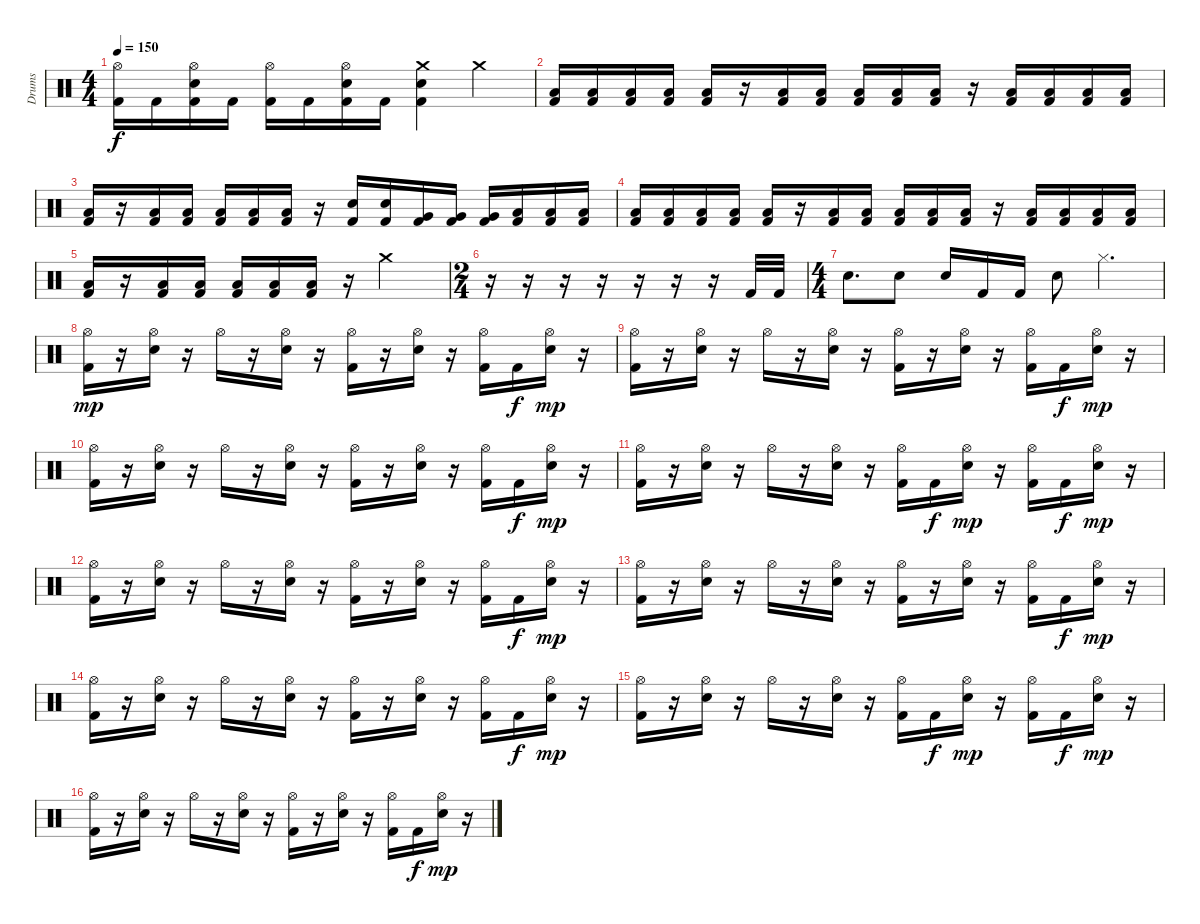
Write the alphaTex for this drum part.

\track ("Drums" "Drums") {instrument percussion}
\staff {score}
\articulation defaults
\ts (4 4)
\tempo 150
\clef neutral
\ks c
("Kick (hit) 2" "Hi-Hat (open)").16{dy f} "Kick (hit) 2".16 ("Kick (hit) 2" "Snare (hit) 2" "Hi-Hat (open)").16 "Kick (hit) 2".16 ("Kick (hit) 2" "Hi-Hat (open)").16 "Kick (hit) 2".16 ("Kick (hit) 2" "Snare (hit) 2" "Hi-Hat (open)").16 "Kick (hit) 2".16 ("Kick (hit) 2" "Snare (hit) 2" "Crash medium (hit)").4 "Crash medium (hit)".4 |
("Low Floor Tom (hit)" "Kick (hit) 2").16 ("Low Floor Tom (hit)" "Kick (hit) 2").16 ("Low Floor Tom (hit)" "Kick (hit) 2").16 ("Low Floor Tom (hit)" "Kick (hit) 2").16 ("Low Floor Tom (hit)" "Kick (hit) 2").16 r.16 ("Low Floor Tom (hit)" "Kick (hit) 2").16 ("Low Floor Tom (hit)" "Kick (hit) 2").16 ("Low Floor Tom (hit)" "Kick (hit) 2").16 ("Low Floor Tom (hit)" "Kick (hit) 2").16 ("Low Floor Tom (hit)" "Kick (hit) 2").16 r.16 ("Low Floor Tom (hit)" "Kick (hit) 2").16 ("Low Floor Tom (hit)" "Kick (hit) 2").16 ("Low Floor Tom (hit)" "Kick (hit) 2").16 ("Low Floor Tom (hit)" "Kick (hit) 2").16 |
("Low Floor Tom (hit)" "Kick (hit) 2").16 r.16 ("Low Floor Tom (hit)" "Kick (hit) 2").16 ("Low Floor Tom (hit)" "Kick (hit) 2").16 ("Low Floor Tom (hit)" "Kick (hit) 2").16 ("Low Floor Tom (hit)" "Kick (hit) 2").16 ("Low Floor Tom (hit)" "Kick (hit) 2").16 r.16 ("Snare (hit) 2" "Kick (hit) 2").16 ("Snare (hit) 2" "Kick (hit) 2").16 ("Very Low Tom (hit)" "Kick (hit) 2").16 ("Very Low Tom (hit)" "Kick (hit) 2").16 ("Very Low Tom (hit)" "Kick (hit) 2").16 ("Low Floor Tom (hit)" "Kick (hit) 2").16 ("Low Floor Tom (hit)" "Kick (hit) 2").16 ("Low Floor Tom (hit)" "Kick (hit) 2").16 |
("Low Floor Tom (hit)" "Kick (hit) 2").16 ("Low Floor Tom (hit)" "Kick (hit) 2").16 ("Low Floor Tom (hit)" "Kick (hit) 2").16 ("Low Floor Tom (hit)" "Kick (hit) 2").16 ("Low Floor Tom (hit)" "Kick (hit) 2").16 r.16 ("Low Floor Tom (hit)" "Kick (hit) 2").16 ("Low Floor Tom (hit)" "Kick (hit) 2").16 ("Low Floor Tom (hit)" "Kick (hit) 2").16 ("Low Floor Tom (hit)" "Kick (hit) 2").16 ("Low Floor Tom (hit)" "Kick (hit) 2").16 r.16 ("Low Floor Tom (hit)" "Kick (hit) 2").16 ("Low Floor Tom (hit)" "Kick (hit) 2").16 ("Low Floor Tom (hit)" "Kick (hit) 2").16 ("Low Floor Tom (hit)" "Kick (hit) 2").16 |
("Low Floor Tom (hit)" "Kick (hit) 2").16 r.16 ("Low Floor Tom (hit)" "Kick (hit) 2").16 ("Low Floor Tom (hit)" "Kick (hit) 2").16 ("Low Floor Tom (hit)" "Kick (hit) 2").16 ("Low Floor Tom (hit)" "Kick (hit) 2").16 ("Low Floor Tom (hit)" "Kick (hit) 2").16 r.16 "Crash medium (hit)".2 |
\ts (2 4)
r.16 r.16 r.16 r.16 r.16 r.16 r.16 "Kick (hit) 2".32 "Kick (hit) 2".32 |
\ts (4 4)
"Electric Snare (hit)".8{d} "Electric Snare (hit)".8 "Electric Snare (hit)".16 "Kick (hit) 2".16 "Kick (hit) 2".16 "Electric Snare (hit)".8 "Hi-Hat (closed)".4{d} |
("Kick (hit) 2" "Hi-Hat (open)").16{dy mp} r.16 ("Electric Snare (hit)" "Hi-Hat (open)").16 r.16 "Hi-Hat (open)".16 r.16 ("Electric Snare (hit)" "Hi-Hat (open)").16 r.16 ("Kick (hit) 2" "Hi-Hat (open)").16 r.16 ("Electric Snare (hit)" "Hi-Hat (open)").16 r.16 ("Kick (hit) 2" "Hi-Hat (open)").16 "Kick (hit) 2".16{dy f} ("Electric Snare (hit)" "Hi-Hat (open)").16{dy mp} r.16 |
("Kick (hit) 2" "Hi-Hat (open)").16 r.16 ("Electric Snare (hit)" "Hi-Hat (open)").16 r.16 "Hi-Hat (open)".16 r.16 ("Electric Snare (hit)" "Hi-Hat (open)").16 r.16 ("Kick (hit) 2" "Hi-Hat (open)").16 r.16 ("Electric Snare (hit)" "Hi-Hat (open)").16 r.16 ("Kick (hit) 2" "Hi-Hat (open)").16 "Kick (hit) 2".16{dy f} ("Electric Snare (hit)" "Hi-Hat (open)").16{dy mp} r.16 |
("Kick (hit) 2" "Hi-Hat (open)").16 r.16 ("Electric Snare (hit)" "Hi-Hat (open)").16 r.16 "Hi-Hat (open)".16 r.16 ("Electric Snare (hit)" "Hi-Hat (open)").16 r.16 ("Kick (hit) 2" "Hi-Hat (open)").16 r.16 ("Electric Snare (hit)" "Hi-Hat (open)").16 r.16 ("Kick (hit) 2" "Hi-Hat (open)").16 "Kick (hit) 2".16{dy f} ("Electric Snare (hit)" "Hi-Hat (open)").16{dy mp} r.16 |
("Kick (hit) 2" "Hi-Hat (open)").16 r.16 ("Electric Snare (hit)" "Hi-Hat (open)").16 r.16 "Hi-Hat (open)".16 r.16 ("Electric Snare (hit)" "Hi-Hat (open)").16 r.16 ("Kick (hit) 2" "Hi-Hat (open)").16 "Kick (hit) 2".16{dy f} ("Electric Snare (hit)" "Hi-Hat (open)").16{dy mp} r.16 ("Kick (hit) 2" "Hi-Hat (open)").16 "Kick (hit) 2".16{dy f} ("Electric Snare (hit)" "Hi-Hat (open)").16{dy mp} r.16 |
("Kick (hit) 2" "Hi-Hat (open)").16 r.16 ("Electric Snare (hit)" "Hi-Hat (open)").16 r.16 "Hi-Hat (open)".16 r.16 ("Electric Snare (hit)" "Hi-Hat (open)").16 r.16 ("Kick (hit) 2" "Hi-Hat (open)").16 r.16 ("Electric Snare (hit)" "Hi-Hat (open)").16 r.16 ("Kick (hit) 2" "Hi-Hat (open)").16 "Kick (hit) 2".16{dy f} ("Electric Snare (hit)" "Hi-Hat (open)").16{dy mp} r.16 |
("Kick (hit) 2" "Hi-Hat (open)").16 r.16 ("Electric Snare (hit)" "Hi-Hat (open)").16 r.16 "Hi-Hat (open)".16 r.16 ("Electric Snare (hit)" "Hi-Hat (open)").16 r.16 ("Kick (hit) 2" "Hi-Hat (open)").16 r.16 ("Electric Snare (hit)" "Hi-Hat (open)").16 r.16 ("Kick (hit) 2" "Hi-Hat (open)").16 "Kick (hit) 2".16{dy f} ("Electric Snare (hit)" "Hi-Hat (open)").16{dy mp} r.16 |
("Kick (hit) 2" "Hi-Hat (open)").16 r.16 ("Electric Snare (hit)" "Hi-Hat (open)").16 r.16 "Hi-Hat (open)".16 r.16 ("Electric Snare (hit)" "Hi-Hat (open)").16 r.16 ("Kick (hit) 2" "Hi-Hat (open)").16 r.16 ("Electric Snare (hit)" "Hi-Hat (open)").16 r.16 ("Kick (hit) 2" "Hi-Hat (open)").16 "Kick (hit) 2".16{dy f} ("Electric Snare (hit)" "Hi-Hat (open)").16{dy mp} r.16 |
("Kick (hit) 2" "Hi-Hat (open)").16 r.16 ("Electric Snare (hit)" "Hi-Hat (open)").16 r.16 "Hi-Hat (open)".16 r.16 ("Electric Snare (hit)" "Hi-Hat (open)").16 r.16 ("Kick (hit) 2" "Hi-Hat (open)").16 "Kick (hit) 2".16{dy f} ("Electric Snare (hit)" "Hi-Hat (open)").16{dy mp} r.16 ("Kick (hit) 2" "Hi-Hat (open)").16 "Kick (hit) 2".16{dy f} ("Electric Snare (hit)" "Hi-Hat (open)").16{dy mp} r.16 |
("Kick (hit) 2" "Hi-Hat (open)").16 r.16 ("Electric Snare (hit)" "Hi-Hat (open)").16 r.16 "Hi-Hat (open)".16 r.16 ("Electric Snare (hit)" "Hi-Hat (open)").16 r.16 ("Kick (hit) 2" "Hi-Hat (open)").16 r.16 ("Electric Snare (hit)" "Hi-Hat (open)").16 r.16 ("Kick (hit) 2" "Hi-Hat (open)").16 "Kick (hit) 2".16{dy f} ("Electric Snare (hit)" "Hi-Hat (open)").16{dy mp} r.16
